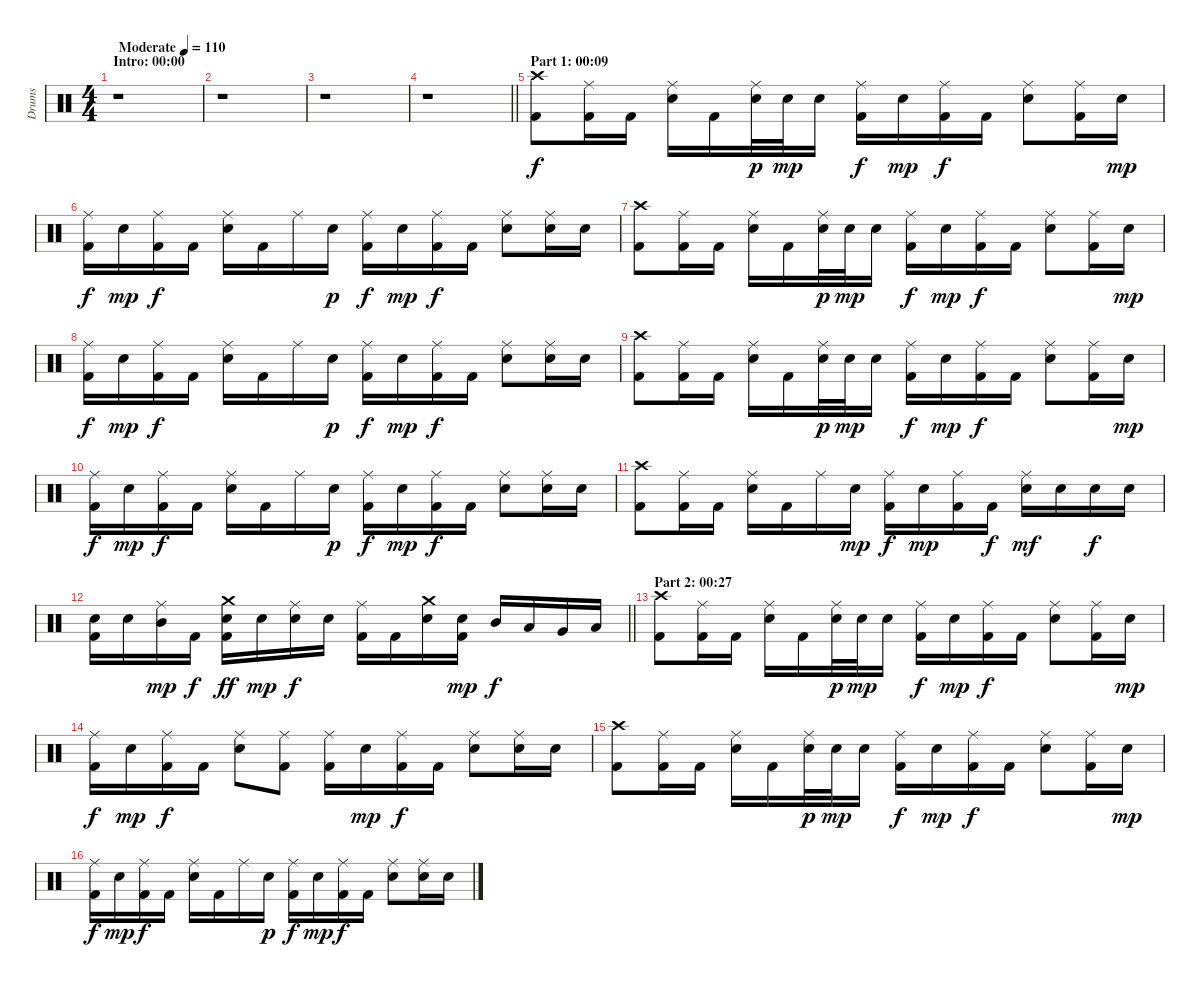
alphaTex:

\track ("Drums" "Drums") {instrument percussion}
\staff {score}
\articulation defaults
\ts (4 4)
\section ("" "Intro: 00:00")
\tempo (110 "Moderate")
\clef neutral
\ks c
r.1{dy f} |
r.1 |
r.1 |
\barLineRight lightlight
r.1 |
\section ("" "Part 1: 00:09")
("Crash high (hit)" "Kick (hit) 2").8 ("Ride (middle)" "Kick (hit) 2").16 "Kick (hit) 2".16 ("Ride (middle)" "Electric Snare (hit)").16 "Kick (hit) 2".16 ("Ride (middle)" "Electric Snare (hit)").32{dy p} "Electric Snare (hit)".32{dy mp} "Electric Snare (hit)".16 ("Ride (middle)" "Kick (hit) 2").16{dy f} "Electric Snare (hit)".16{dy mp} ("Ride (middle)" "Kick (hit) 2").16{dy f} "Kick (hit) 2".16 ("Ride (middle)" "Electric Snare (hit)").8 ("Ride (middle)" "Kick (hit) 2").16 "Electric Snare (hit)".16{dy mp} |
("Ride (middle)" "Kick (hit) 2").16{dy f} "Electric Snare (hit)".16{dy mp} ("Ride (middle)" "Kick (hit) 2").16{dy f} "Kick (hit) 2".16 ("Ride (middle)" "Electric Snare (hit)").16 "Kick (hit) 2".16 "Ride (middle)".16 "Electric Snare (hit)".16{dy p} ("Ride (middle)" "Kick (hit) 2").16{dy f} "Electric Snare (hit)".16{dy mp} ("Ride (middle)" "Kick (hit) 2").16{dy f} "Kick (hit) 2".16 ("Ride (middle)" "Electric Snare (hit)").8 ("Ride (middle)" "Electric Snare (hit)").16 "Electric Snare (hit)".16 |
("Crash high (hit)" "Kick (hit) 2").8 ("Ride (middle)" "Kick (hit) 2").16 "Kick (hit) 2".16 ("Ride (middle)" "Electric Snare (hit)").16 "Kick (hit) 2".16 ("Ride (middle)" "Electric Snare (hit)").32{dy p} "Electric Snare (hit)".32{dy mp} "Electric Snare (hit)".16 ("Ride (middle)" "Kick (hit) 2").16{dy f} "Electric Snare (hit)".16{dy mp} ("Ride (middle)" "Kick (hit) 2").16{dy f} "Kick (hit) 2".16 ("Ride (middle)" "Electric Snare (hit)").8 ("Ride (middle)" "Kick (hit) 2").16 "Electric Snare (hit)".16{dy mp} |
("Ride (middle)" "Kick (hit) 2").16{dy f} "Electric Snare (hit)".16{dy mp} ("Ride (middle)" "Kick (hit) 2").16{dy f} "Kick (hit) 2".16 ("Ride (middle)" "Electric Snare (hit)").16 "Kick (hit) 2".16 "Ride (middle)".16 "Electric Snare (hit)".16{dy p} ("Ride (middle)" "Kick (hit) 2").16{dy f} "Electric Snare (hit)".16{dy mp} ("Ride (middle)" "Kick (hit) 2").16{dy f} "Kick (hit) 2".16 ("Ride (middle)" "Electric Snare (hit)").8 ("Ride (middle)" "Electric Snare (hit)").16 "Electric Snare (hit)".16 |
("Crash high (hit)" "Kick (hit) 2").8 ("Ride (middle)" "Kick (hit) 2").16 "Kick (hit) 2".16 ("Ride (middle)" "Electric Snare (hit)").16 "Kick (hit) 2".16 ("Ride (middle)" "Electric Snare (hit)").32{dy p} "Electric Snare (hit)".32{dy mp} "Electric Snare (hit)".16 ("Ride (middle)" "Kick (hit) 2").16{dy f} "Electric Snare (hit)".16{dy mp} ("Ride (middle)" "Kick (hit) 2").16{dy f} "Kick (hit) 2".16 ("Ride (middle)" "Electric Snare (hit)").8 ("Ride (middle)" "Kick (hit) 2").16 "Electric Snare (hit)".16{dy mp} |
("Ride (middle)" "Kick (hit) 2").16{dy f} "Electric Snare (hit)".16{dy mp} ("Ride (middle)" "Kick (hit) 2").16{dy f} "Kick (hit) 2".16 ("Ride (middle)" "Electric Snare (hit)").16 "Kick (hit) 2".16 "Ride (middle)".16 "Electric Snare (hit)".16{dy p} ("Ride (middle)" "Kick (hit) 2").16{dy f} "Electric Snare (hit)".16{dy mp} ("Ride (middle)" "Kick (hit) 2").16{dy f} "Kick (hit) 2".16 ("Ride (middle)" "Electric Snare (hit)").8 ("Ride (middle)" "Electric Snare (hit)").16 "Electric Snare (hit)".16 |
("Crash high (hit)" "Kick (hit) 2").8 ("Ride (middle)" "Kick (hit) 2").16 "Kick (hit) 2".16 ("Ride (middle)" "Electric Snare (hit)").16 "Kick (hit) 2".16 "Ride (middle)".16 "Electric Snare (hit)".16{dy mp} ("Ride (middle)" "Kick (hit) 2").16{dy f} "Electric Snare (hit)".16{dy mp} ("Ride (middle)" "Kick (hit) 2").16 "Kick (hit) 2".16{dy f} ("Ride (middle)" "Electric Snare (hit)").16{dy mf} "Electric Snare (hit)".16 "Electric Snare (hit)".16{dy f} "Electric Snare (hit)".16 |
\barLineRight lightlight
("Electric Snare (hit)" "Kick (hit) 2").16 "Electric Snare (hit)".16 ("Ride (middle)" "Mid Tom (hit)").16{dy mp} "Kick (hit) 2".16{dy f} ("Crash medium (hit)" "Electric Snare (hit)" "Kick (hit) 2").16{dy ff} "Electric Snare (hit)".16{dy mp} ("Ride (middle)" "Electric Snare (hit)").16{dy f} "Electric Snare (hit)".16 ("Ride (middle)" "Kick (hit) 2").16 "Kick (hit) 2".16 ("Crash medium (hit)" "Electric Snare (hit)").16 ("Electric Snare (hit)" "Kick (hit) 2").16{dy mp} "Mid Tom (hit)".16{dy f} "Low Tom (hit)".16 "Very Low Tom (hit)".16 "Low Floor Tom (hit)".16 |
\section ("" "Part 2: 00:27")
("Crash high (hit)" "Kick (hit) 2").8 ("Ride (middle)" "Kick (hit) 2").16 "Kick (hit) 2".16 ("Ride (middle)" "Electric Snare (hit)").16 "Kick (hit) 2".16 ("Ride (middle)" "Electric Snare (hit)").32{dy p} "Electric Snare (hit)".32{dy mp} "Electric Snare (hit)".16 ("Ride (middle)" "Kick (hit) 2").16{dy f} "Electric Snare (hit)".16{dy mp} ("Ride (middle)" "Kick (hit) 2").16{dy f} "Kick (hit) 2".16 ("Ride (middle)" "Electric Snare (hit)").8 ("Ride (middle)" "Kick (hit) 2").16 "Electric Snare (hit)".16{dy mp} |
("Ride (middle)" "Kick (hit) 2").16{dy f} "Electric Snare (hit)".16{dy mp} ("Ride (middle)" "Kick (hit) 2").16{dy f} "Kick (hit) 2".16 ("Ride (middle)" "Electric Snare (hit)").8 ("Ride (middle)" "Kick (hit) 2").8 ("Ride (middle)" "Kick (hit) 2").16 "Electric Snare (hit)".16{dy mp} ("Ride (middle)" "Kick (hit) 2").16{dy f} "Kick (hit) 2".16 ("Ride (middle)" "Electric Snare (hit)").8 ("Ride (middle)" "Electric Snare (hit)").16 "Electric Snare (hit)".16 |
("Crash high (hit)" "Kick (hit) 2").8 ("Ride (middle)" "Kick (hit) 2").16 "Kick (hit) 2".16 ("Ride (middle)" "Electric Snare (hit)").16 "Kick (hit) 2".16 ("Ride (middle)" "Electric Snare (hit)").32{dy p} "Electric Snare (hit)".32{dy mp} "Electric Snare (hit)".16 ("Ride (middle)" "Kick (hit) 2").16{dy f} "Electric Snare (hit)".16{dy mp} ("Ride (middle)" "Kick (hit) 2").16{dy f} "Kick (hit) 2".16 ("Ride (middle)" "Electric Snare (hit)").8 ("Ride (middle)" "Kick (hit) 2").16 "Electric Snare (hit)".16{dy mp} |
("Ride (middle)" "Kick (hit) 2").16{dy f} "Electric Snare (hit)".16{dy mp} ("Ride (middle)" "Kick (hit) 2").16{dy f} "Kick (hit) 2".16 ("Ride (middle)" "Electric Snare (hit)").16 "Kick (hit) 2".16 "Ride (middle)".16 "Electric Snare (hit)".16{dy p} ("Ride (middle)" "Kick (hit) 2").16{dy f} "Electric Snare (hit)".16{dy mp} ("Ride (middle)" "Kick (hit) 2").16{dy f} "Kick (hit) 2".16 ("Ride (middle)" "Electric Snare (hit)").8 ("Ride (middle)" "Electric Snare (hit)").16 "Electric Snare (hit)".16
